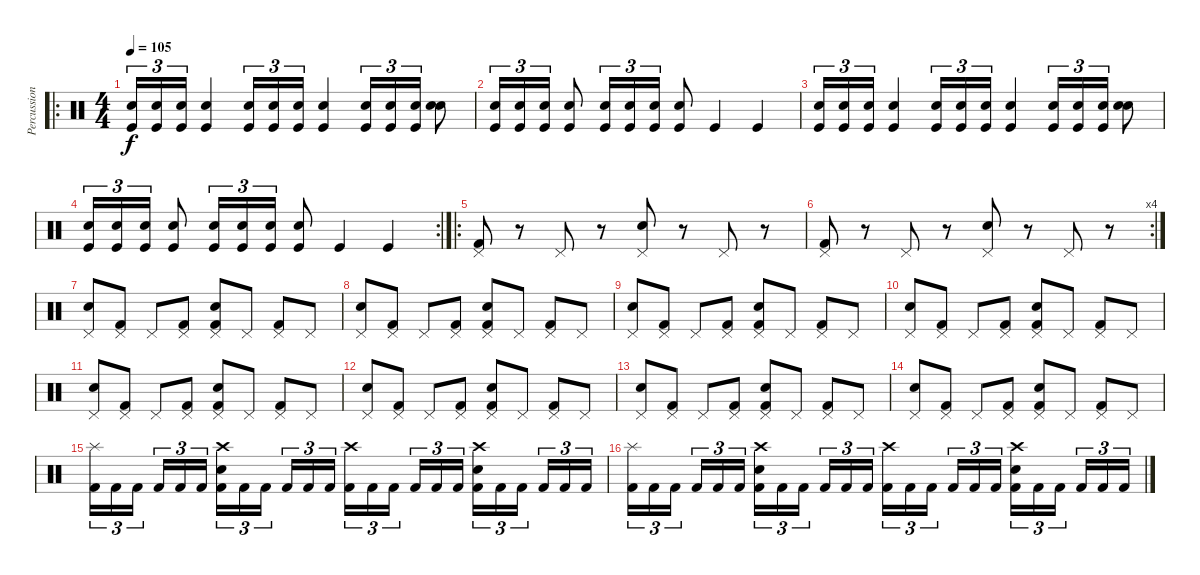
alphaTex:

\track ("Percussion" "Percussion") {instrument percussion}
\staff {score}
\articulation defaults
\ro
\ts (4 4)
\tempo 105
\clef neutral
\ks c
("Snare (hit) 2" "Kick (hit)"{x}).16{tu (3 2) dy f} ("Snare (hit) 2" "Kick (hit)"{x}).16{tu (3 2)} ("Snare (hit) 2" "Kick (hit)"{x}).16{tu (3 2)} ("Snare (hit) 2" "Kick (hit)").4 ("Snare (hit) 2" "Kick (hit)"{x}).16{tu (3 2)} ("Snare (hit) 2" "Kick (hit)"{x}).16{tu (3 2)} ("Snare (hit) 2" "Kick (hit)"{x}).16{tu (3 2)} ("Snare (hit) 2" "Kick (hit)").4 ("Snare (hit) 2" "Kick (hit)"{x}).16{tu (3 2)} ("Snare (hit) 2" "Kick (hit)"{x}).16{tu (3 2)} ("Snare (hit) 2" "Kick (hit)"{x}).16{tu (3 2)} ("Snare (hit) 2" "Snare (hit) 2").8 |
("Snare (hit) 2" "Kick (hit)"{x}).16{tu (3 2)} ("Snare (hit) 2" "Kick (hit)"{x}).16{tu (3 2)} ("Snare (hit) 2" "Kick (hit)"{x}).16{tu (3 2)} ("Snare (hit) 2" "Kick (hit)").8 ("Snare (hit) 2" "Kick (hit)"{x}).16{tu (3 2)} ("Snare (hit) 2" "Kick (hit)"{x}).16{tu (3 2)} ("Snare (hit) 2" "Kick (hit)"{x}).16{tu (3 2)} ("Snare (hit) 2" "Kick (hit)").8 "Kick (hit)".4 "Kick (hit)".4 |
("Snare (hit) 2" "Kick (hit)"{x}).16{tu (3 2)} ("Snare (hit) 2" "Kick (hit)"{x}).16{tu (3 2)} ("Snare (hit) 2" "Kick (hit)"{x}).16{tu (3 2)} ("Snare (hit) 2" "Kick (hit)").4 ("Snare (hit) 2" "Kick (hit)"{x}).16{tu (3 2)} ("Snare (hit) 2" "Kick (hit)"{x}).16{tu (3 2)} ("Snare (hit) 2" "Kick (hit)"{x}).16{tu (3 2)} ("Snare (hit) 2" "Kick (hit)").4 ("Snare (hit) 2" "Kick (hit)"{x}).16{tu (3 2)} ("Snare (hit) 2" "Kick (hit)"{x}).16{tu (3 2)} ("Snare (hit) 2" "Kick (hit)"{x}).16{tu (3 2)} ("Snare (hit) 2" "Snare (hit) 2").8 |
\rc 2
("Snare (hit) 2" "Kick (hit)"{x}).16{tu (3 2)} ("Snare (hit) 2" "Kick (hit)"{x}).16{tu (3 2)} ("Snare (hit) 2" "Kick (hit)"{x}).16{tu (3 2)} ("Snare (hit) 2" "Kick (hit)").8 ("Snare (hit) 2" "Kick (hit)"{x}).16{tu (3 2)} ("Snare (hit) 2" "Kick (hit)"{x}).16{tu (3 2)} ("Snare (hit) 2" "Kick (hit)"{x}).16{tu (3 2)} ("Snare (hit) 2" "Kick (hit)").8 "Kick (hit)".4 "Kick (hit)".4 |
\ro
("Pedal Hi-Hat (hit)" "Kick (hit) 2").8 r.8 "Pedal Hi-Hat (hit)".8 r.8 ("Pedal Hi-Hat (hit)" "Snare (hit) 2").8 r.8 "Pedal Hi-Hat (hit)".8 r.8 |
\rc 4
("Pedal Hi-Hat (hit)" "Kick (hit) 2").8 r.8 "Pedal Hi-Hat (hit)".8 r.8 ("Pedal Hi-Hat (hit)" "Snare (hit) 2").8 r.8 "Pedal Hi-Hat (hit)".8 r.8 |
("Pedal Hi-Hat (hit)" "Snare (hit) 2").8 ("Pedal Hi-Hat (hit)" "Kick (hit) 2").8 "Pedal Hi-Hat (hit)".8 ("Pedal Hi-Hat (hit)" "Kick (hit) 2").8 ("Pedal Hi-Hat (hit)" "Snare (hit) 2" "Kick (hit) 2").8 "Pedal Hi-Hat (hit)".8 ("Pedal Hi-Hat (hit)" "Kick (hit) 2").8 "Pedal Hi-Hat (hit)".8 |
("Pedal Hi-Hat (hit)" "Snare (hit) 2").8 ("Pedal Hi-Hat (hit)" "Kick (hit) 2").8 "Pedal Hi-Hat (hit)".8 ("Pedal Hi-Hat (hit)" "Kick (hit) 2").8 ("Pedal Hi-Hat (hit)" "Snare (hit) 2" "Kick (hit) 2").8 "Pedal Hi-Hat (hit)".8 ("Pedal Hi-Hat (hit)" "Kick (hit) 2").8 "Pedal Hi-Hat (hit)".8 |
("Pedal Hi-Hat (hit)" "Snare (hit) 2").8 ("Pedal Hi-Hat (hit)" "Kick (hit) 2").8 "Pedal Hi-Hat (hit)".8 ("Pedal Hi-Hat (hit)" "Kick (hit) 2").8 ("Pedal Hi-Hat (hit)" "Snare (hit) 2" "Kick (hit) 2").8 "Pedal Hi-Hat (hit)".8 ("Pedal Hi-Hat (hit)" "Kick (hit) 2").8 "Pedal Hi-Hat (hit)".8 |
("Pedal Hi-Hat (hit)" "Snare (hit) 2").8 ("Pedal Hi-Hat (hit)" "Kick (hit) 2").8 "Pedal Hi-Hat (hit)".8 ("Pedal Hi-Hat (hit)" "Kick (hit) 2").8 ("Pedal Hi-Hat (hit)" "Snare (hit) 2" "Kick (hit) 2").8 "Pedal Hi-Hat (hit)".8 ("Pedal Hi-Hat (hit)" "Kick (hit) 2").8 "Pedal Hi-Hat (hit)".8 |
("Pedal Hi-Hat (hit)" "Snare (hit) 2").8 ("Pedal Hi-Hat (hit)" "Kick (hit) 2").8 "Pedal Hi-Hat (hit)".8 ("Pedal Hi-Hat (hit)" "Kick (hit) 2").8 ("Pedal Hi-Hat (hit)" "Snare (hit) 2" "Kick (hit) 2").8 "Pedal Hi-Hat (hit)".8 ("Pedal Hi-Hat (hit)" "Kick (hit) 2").8 "Pedal Hi-Hat (hit)".8 |
("Pedal Hi-Hat (hit)" "Snare (hit) 2").8 ("Pedal Hi-Hat (hit)" "Kick (hit) 2").8 "Pedal Hi-Hat (hit)".8 ("Pedal Hi-Hat (hit)" "Kick (hit) 2").8 ("Pedal Hi-Hat (hit)" "Snare (hit) 2" "Kick (hit) 2").8 "Pedal Hi-Hat (hit)".8 ("Pedal Hi-Hat (hit)" "Kick (hit) 2").8 "Pedal Hi-Hat (hit)".8 |
("Pedal Hi-Hat (hit)" "Snare (hit) 2").8 ("Pedal Hi-Hat (hit)" "Kick (hit) 2").8 "Pedal Hi-Hat (hit)".8 ("Pedal Hi-Hat (hit)" "Kick (hit) 2").8 ("Pedal Hi-Hat (hit)" "Snare (hit) 2" "Kick (hit) 2").8 "Pedal Hi-Hat (hit)".8 ("Pedal Hi-Hat (hit)" "Kick (hit) 2").8 "Pedal Hi-Hat (hit)".8 |
("Pedal Hi-Hat (hit)" "Snare (hit) 2").8 ("Pedal Hi-Hat (hit)" "Kick (hit) 2").8 "Pedal Hi-Hat (hit)".8 ("Pedal Hi-Hat (hit)" "Kick (hit) 2").8 ("Pedal Hi-Hat (hit)" "Snare (hit) 2" "Kick (hit) 2").8 "Pedal Hi-Hat (hit)".8 ("Pedal Hi-Hat (hit)" "Kick (hit) 2").8 "Pedal Hi-Hat (hit)".8 |
("Splash (hit)" "Kick (hit) 2").16{tu (3 2)} "Kick (hit) 2".16{tu (3 2)} "Kick (hit) 2".16{tu (3 2)} "Kick (hit) 2".16{tu (3 2)} "Kick (hit) 2".16{tu (3 2)} "Kick (hit) 2".16{tu (3 2)} ("Crash high (hit)" "Snare (hit) 2" "Kick (hit) 2").16{tu (3 2)} "Kick (hit) 2".16{tu (3 2)} "Kick (hit) 2".16{tu (3 2)} "Kick (hit) 2".16{tu (3 2)} "Kick (hit) 2".16{tu (3 2)} "Kick (hit) 2".16{tu (3 2)} ("Crash high (hit)" "Kick (hit) 2").16{tu (3 2)} "Kick (hit) 2".16{tu (3 2)} "Kick (hit) 2".16{tu (3 2)} "Kick (hit) 2".16{tu (3 2)} "Kick (hit) 2".16{tu (3 2)} "Kick (hit) 2".16{tu (3 2)} ("Crash high (hit)" "Snare (hit) 2" "Kick (hit) 2").16{tu (3 2)} "Kick (hit) 2".16{tu (3 2)} "Kick (hit) 2".16{tu (3 2)} "Kick (hit) 2".16{tu (3 2)} "Kick (hit) 2".16{tu (3 2)} "Kick (hit) 2".16{tu (3 2)} |
("Splash (hit)" "Kick (hit) 2").16{tu (3 2)} "Kick (hit) 2".16{tu (3 2)} "Kick (hit) 2".16{tu (3 2)} "Kick (hit) 2".16{tu (3 2)} "Kick (hit) 2".16{tu (3 2)} "Kick (hit) 2".16{tu (3 2)} ("Crash high (hit)" "Snare (hit) 2" "Kick (hit) 2").16{tu (3 2)} "Kick (hit) 2".16{tu (3 2)} "Kick (hit) 2".16{tu (3 2)} "Kick (hit) 2".16{tu (3 2)} "Kick (hit) 2".16{tu (3 2)} "Kick (hit) 2".16{tu (3 2)} ("Crash high (hit)" "Kick (hit) 2").16{tu (3 2)} "Kick (hit) 2".16{tu (3 2)} "Kick (hit) 2".16{tu (3 2)} "Kick (hit) 2".16{tu (3 2)} "Kick (hit) 2".16{tu (3 2)} "Kick (hit) 2".16{tu (3 2)} ("Crash high (hit)" "Snare (hit) 2" "Kick (hit) 2").16{tu (3 2)} "Kick (hit) 2".16{tu (3 2)} "Kick (hit) 2".16{tu (3 2)} "Kick (hit) 2".16{tu (3 2)} "Kick (hit) 2".16{tu (3 2)} "Kick (hit) 2".16{tu (3 2)}
